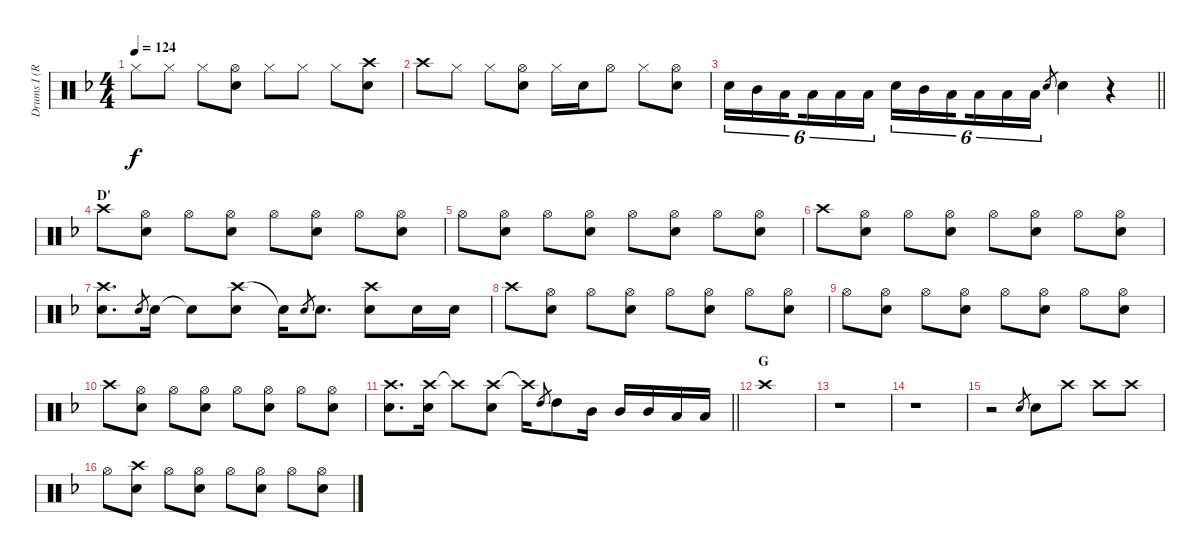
\track ("Drums I (RUKA)" "Drums I (R") {instrument percussion}
\staff {score}
\articulation defaults
\ts (4 4)
\tempo 124
\clef neutral
\ks f "Hi-Hat (closed)".8{dy f} "Hi-Hat (closed)".8 "Hi-Hat (closed)".8
("Hi-Hat (open)" "Snare (hit) 2").8 "Hi-Hat (closed)".8 "Hi-Hat (closed)".8 "Hi-Hat (closed)".8 ("Crash high (hit)" "Snare (hit) 2").8 |
"Crash high (hit)".8 "Hi-Hat (closed)".8 "Hi-Hat (closed)".8 ("Hi-Hat (open)" "Snare (hit) 2").8 "Hi-Hat (closed)".16 "Snare (hit) 2".16 "Hi-Hat (open)".8 "Hi-Hat (closed)".8 ("Hi-Hat (open)" "Snare (hit) 2").8 |
\barLineRight lightlight "Snare (hit) 2".16{tu (6 4)} "Mid Tom (hit)".16{tu (6 4)} "Low Tom (hit)".16{tu (6 4) beam splitsecondary} "Low Tom (hit)".16{tu (6 4)} "Low Floor Tom (hit)".16{tu (6 4)} "Low Floor Tom (hit)".16{tu (6 4)} "Snare (hit) 2".16{tu (6 4)} "Mid Tom (hit)".16{tu (6 4)} "Low Tom (hit)".16{tu (6 4) beam splitsecondary} "Low Tom (hit)".16{tu (6 4)} "Low Floor Tom (hit)".16{tu (6 4)} "Low Floor Tom (hit)".16{tu (6 4)} "Snare (hit) 2".8{gr} "Snare (hit) 2".4
r.4 |
\section ("" "D'")
"Crash high (hit)".8 ("Hi-Hat (open)" "Snare (hit) 2").8 "Hi-Hat (open)".8 ("Hi-Hat (open)" "Snare (hit) 2").8 "Hi-Hat (open)".8 ("Hi-Hat (open)" "Snare (hit) 2").8 "Hi-Hat (open)".8 ("Hi-Hat (open)" "Snare (hit) 2").8 |
"Hi-Hat (open)".8 ("Hi-Hat (open)" "Snare (hit) 2").8 "Hi-Hat (open)".8 ("Hi-Hat (open)" "Snare (hit) 2").8 "Hi-Hat (open)".8 ("Hi-Hat (open)" "Snare (hit) 2").8 "Hi-Hat (open)".8 ("Hi-Hat (open)" "Snare (hit) 2").8 |
"Crash high (hit)".8 ("Hi-Hat (open)" "Snare (hit) 2").8 "Hi-Hat (open)".8 ("Hi-Hat (open)" "Snare (hit) 2").8 "Hi-Hat (open)".8 ("Hi-Hat (open)" "Snare (hit) 2").8 "Hi-Hat (open)".8 ("Hi-Hat (open)" "Snare (hit) 2").8 |
("Crash high (hit)" "Snare (hit) 2").8{d} "Snare (hit) 2".8{gr} "Snare (hit) 2".16 "Snare (hit)"{t}.8 ("Crash high (hit)" "Snare (hit) 2").8 "Snare (hit)"{t}.16 "Snare (hit) 2".8{gr} "Snare (hit) 2".8{d} ("Crash high (hit)" "Snare (hit) 2").8 "Snare (hit) 2".16 "Snare (hit) 2".16 |
"Crash high (hit)".8 ("Hi-Hat (open)" "Snare (hit) 2").8 "Hi-Hat (open)".8 ("Hi-Hat (open)" "Snare (hit) 2").8 "Hi-Hat (open)".8 ("Hi-Hat (open)" "Snare (hit) 2").8 "Hi-Hat (open)".8 ("Hi-Hat (open)" "Snare (hit) 2").8 |
"Hi-Hat (open)".8 ("Hi-Hat (open)" "Snare (hit) 2").8 "Hi-Hat (open)".8 ("Hi-Hat (open)" "Snare (hit) 2").8 "Hi-Hat (open)".8 ("Hi-Hat (open)" "Snare (hit) 2").8 "Hi-Hat (open)".8 ("Hi-Hat (open)" "Snare (hit) 2").8 |
"Crash high (hit)".8 ("Hi-Hat (open)" "Snare (hit) 2").8 "Hi-Hat (open)".8 ("Hi-Hat (open)" "Snare (hit) 2").8 "Hi-Hat (open)".8 ("Hi-Hat (open)" "Snare (hit) 2").8 "Hi-Hat (open)".8 ("Hi-Hat (open)" "Snare (hit) 2").8 |
\barLineRight lightlight
("Crash high (hit)" "Snare (hit) 2").8{d} ("Crash high (hit)" "Snare (hit) 2").16 "Crash high (hit)"{t}.8 ("Crash high (hit)" "Snare (hit) 2").8 "Crash high (hit)"{t}.16 "High Tom (hit)".8{gr} "High Tom (hit)".8 "Mid Tom (hit)".16 "Mid Tom (hit)".16 "Mid Tom (hit)".16 "Low Tom (hit)".16 "Low Tom (hit)".16 |
\section ("" "G")
"Crash high (hit)".1 |
r.1 |
r.1 |
r.2 "Snare (hit) 2".8{gr} "Snare (hit) 2".8 "Crash high (hit)".8 "Crash high (hit)".8 "Crash high (hit)".8 |
"Hi-Hat (open)".8 ("Crash high (hit)" "Snare (hit) 2").8 "Hi-Hat (open)".8 ("Hi-Hat (open)" "Snare (hit) 2").8 "Hi-Hat (open)".8 ("Hi-Hat (open)" "Snare (hit) 2").8 "Hi-Hat (open)".8 ("Hi-Hat (open)" "Snare (hit) 2").8
